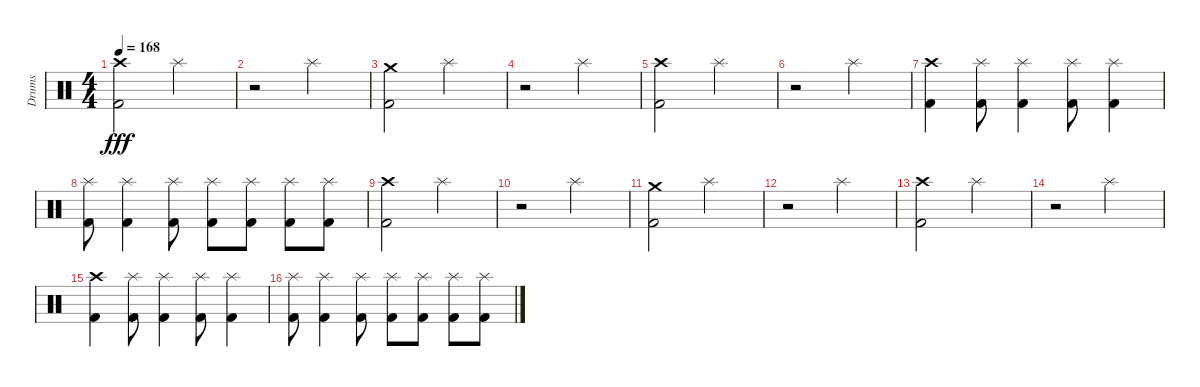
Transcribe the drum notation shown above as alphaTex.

\track ("Drums" "Drums") {instrument percussion}
\staff {score}
\articulation defaults
\ts (4 4)
\tempo 168
\clef neutral
\ks aminor
("Crash high (hit)" "Kick (hit) 2").2{dy fff} "Splash (hit)".2 |
r.2 "Splash (hit)".2 |
("Crash medium (hit)" "Kick (hit) 2").2 "Splash (hit)".2 |
r.2 "Splash (hit)".2 |
("Crash high (hit)" "Kick (hit) 2").2 "Splash (hit)".2 |
r.2 "Splash (hit)".2 |
("Crash high (hit)" "Kick (hit) 2").4 ("Splash (hit)" "Kick (hit) 2").8 ("Splash (hit)" "Kick (hit) 2").4 ("Splash (hit)" "Kick (hit) 2").8 ("Splash (hit)" "Kick (hit) 2").4 |
("Splash (hit)" "Kick (hit) 2").8 ("Splash (hit)" "Kick (hit) 2").4 ("Splash (hit)" "Kick (hit) 2").8 ("Splash (hit)" "Kick (hit) 2").8 ("Splash (hit)" "Kick (hit) 2").8 ("Splash (hit)" "Kick (hit) 2").8 ("Splash (hit)" "Kick (hit) 2").8 |
("Crash high (hit)" "Kick (hit) 2").2 "Splash (hit)".2 |
r.2 "Splash (hit)".2 |
("Crash medium (hit)" "Kick (hit) 2").2 "Splash (hit)".2 |
r.2 "Splash (hit)".2 |
("Crash high (hit)" "Kick (hit) 2").2 "Splash (hit)".2 |
r.2 "Splash (hit)".2 |
("Crash high (hit)" "Kick (hit) 2").4 ("Splash (hit)" "Kick (hit) 2").8 ("Splash (hit)" "Kick (hit) 2").4 ("Splash (hit)" "Kick (hit) 2").8 ("Splash (hit)" "Kick (hit) 2").4 |
("Splash (hit)" "Kick (hit) 2").8 ("Splash (hit)" "Kick (hit) 2").4 ("Splash (hit)" "Kick (hit) 2").8 ("Splash (hit)" "Kick (hit) 2").8 ("Splash (hit)" "Kick (hit) 2").8 ("Splash (hit)" "Kick (hit) 2").8 ("Splash (hit)" "Kick (hit) 2").8
